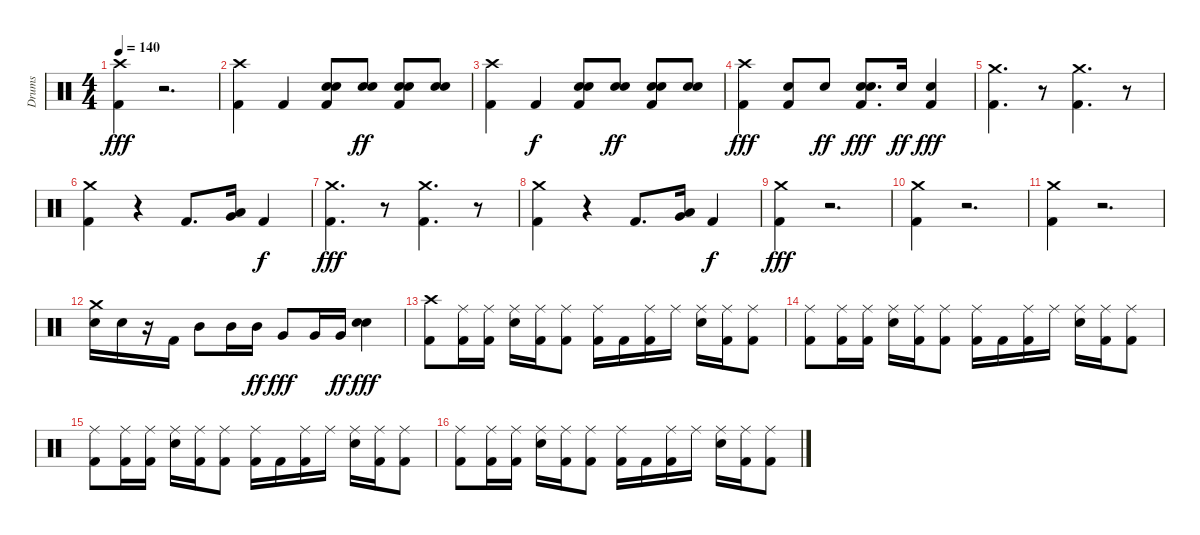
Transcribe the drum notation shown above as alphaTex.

\track ("Drums" "Drums") {instrument percussion}
\staff {score}
\articulation defaults
\ts (4 4)
\tempo 140
\clef neutral
\ks c
("Kick (hit) 2" "Crash high (hit)").4{dy fff} r.2{d} |
("Kick (hit) 2" "Crash high (hit)").4 "Kick (hit) 2".4 ("Snare (hit) 2" "Electric Snare (hit)" "Kick (hit) 2").8 ("Snare (hit) 2" "Electric Snare (hit)").8{dy ff} ("Kick (hit) 2" "Electric Snare (hit)" "Snare (hit) 2").8 ("Snare (hit) 2" "Electric Snare (hit)").8 |
("Kick (hit) 2" "Crash high (hit)").4 "Kick (hit) 2".4{dy f} ("Snare (hit) 2" "Electric Snare (hit)" "Kick (hit) 2").8 ("Snare (hit) 2" "Electric Snare (hit)").8{dy ff} ("Electric Snare (hit)" "Snare (hit) 2" "Kick (hit) 2").8 ("Snare (hit) 2" "Electric Snare (hit)").8 |
("Kick (hit) 2" "Crash high (hit)").4{dy fff} ("Electric Snare (hit)" "Kick (hit) 2").8 "Electric Snare (hit)".8{dy ff} ("Snare (hit) 2" "Electric Snare (hit)" "Kick (hit) 2").8{d dy fff} "Snare (hit) 2".16{dy ff} ("Electric Snare (hit)" "Kick (hit) 2").4{dy fff} |
("Kick (hit) 2" "Crash medium (hit)").4{d} r.8 ("Kick (hit) 2" "Crash medium (hit)").4{d} r.8 |
("Kick (hit) 2" "Crash medium (hit)").4 r.4 "Kick (hit) 2".8{d} ("Low Tom (hit)" "Very Low Tom (hit)").16 "Kick (hit) 2".4{dy f} |
("Kick (hit) 2" "Crash medium (hit)").4{d dy fff} r.8 ("Kick (hit) 2" "Crash medium (hit)").4{d} r.8 |
("Kick (hit) 2" "Crash medium (hit)").4 r.4 "Kick (hit) 2".8{d} ("Low Tom (hit)" "Very Low Tom (hit)").16 "Kick (hit) 2".4{dy f} |
("Kick (hit) 2" "Crash medium (hit)").4{dy fff} r.2{d} |
("Kick (hit) 2" "Crash medium (hit)").4 r.2{d} |
("Kick (hit) 2" "Crash medium (hit)").4 r.2{d} |
("Electric Snare (hit)" "Crash medium (hit)").16 "Electric Snare (hit)".16 r.16 "Kick (hit) 2".16 "Mid Tom (hit)".8 "Mid Tom (hit)".16 "Mid Tom (hit)".16{dy ff} "Very Low Tom (hit)".8{dy fff} "Very Low Tom (hit)".16 "Very Low Tom (hit)".16{dy ff} ("Snare (hit) 2" "Electric Snare (hit)").4{dy fff} |
("Kick (hit) 2" "Crash high (hit)").8 ("Ride (middle)" "Kick (hit) 2").16 ("Ride (middle)" "Kick (hit) 2").16 ("Ride (middle)" "Electric Snare (hit)").16 ("Ride (middle)" "Kick (hit) 2").16 ("Ride (middle)" "Kick (hit) 2").8 ("Ride (middle)" "Kick (hit) 2").16 "Kick (hit) 2".16 ("Ride (middle)" "Kick (hit) 2").16 "Ride (middle)".16 ("Ride (middle)" "Electric Snare (hit)").16 ("Ride (middle)" "Kick (hit) 2").16 ("Ride (middle)" "Kick (hit) 2").8 |
("Ride (middle)" "Kick (hit) 2").8 ("Ride (middle)" "Kick (hit) 2").16 ("Ride (middle)" "Kick (hit) 2").16 ("Ride (middle)" "Electric Snare (hit)").16 ("Ride (middle)" "Kick (hit) 2").16 ("Ride (middle)" "Kick (hit) 2").8 ("Ride (middle)" "Kick (hit) 2").16 "Kick (hit) 2".16 ("Ride (middle)" "Kick (hit) 2").16 "Ride (middle)".16 ("Ride (middle)" "Electric Snare (hit)").16 ("Ride (middle)" "Kick (hit) 2").16 ("Ride (middle)" "Kick (hit) 2").8 |
("Ride (middle)" "Kick (hit) 2").8 ("Ride (middle)" "Kick (hit) 2").16 ("Ride (middle)" "Kick (hit) 2").16 ("Ride (middle)" "Electric Snare (hit)").16 ("Ride (middle)" "Kick (hit) 2").16 ("Ride (middle)" "Kick (hit) 2").8 ("Ride (middle)" "Kick (hit) 2").16 "Kick (hit) 2".16 ("Ride (middle)" "Kick (hit) 2").16 "Ride (middle)".16 ("Ride (middle)" "Electric Snare (hit)").16 ("Ride (middle)" "Kick (hit) 2").16 ("Ride (middle)" "Kick (hit) 2").8 |
("Ride (middle)" "Kick (hit) 2").8 ("Ride (middle)" "Kick (hit) 2").16 ("Ride (middle)" "Kick (hit) 2").16 ("Ride (middle)" "Electric Snare (hit)").16 ("Ride (middle)" "Kick (hit) 2").16 ("Ride (middle)" "Kick (hit) 2").8 ("Ride (middle)" "Kick (hit) 2").16 "Kick (hit) 2".16 ("Ride (middle)" "Kick (hit) 2").16 "Ride (middle)".16 ("Ride (middle)" "Electric Snare (hit)").16 ("Ride (middle)" "Kick (hit) 2").16 ("Ride (middle)" "Kick (hit) 2").8
